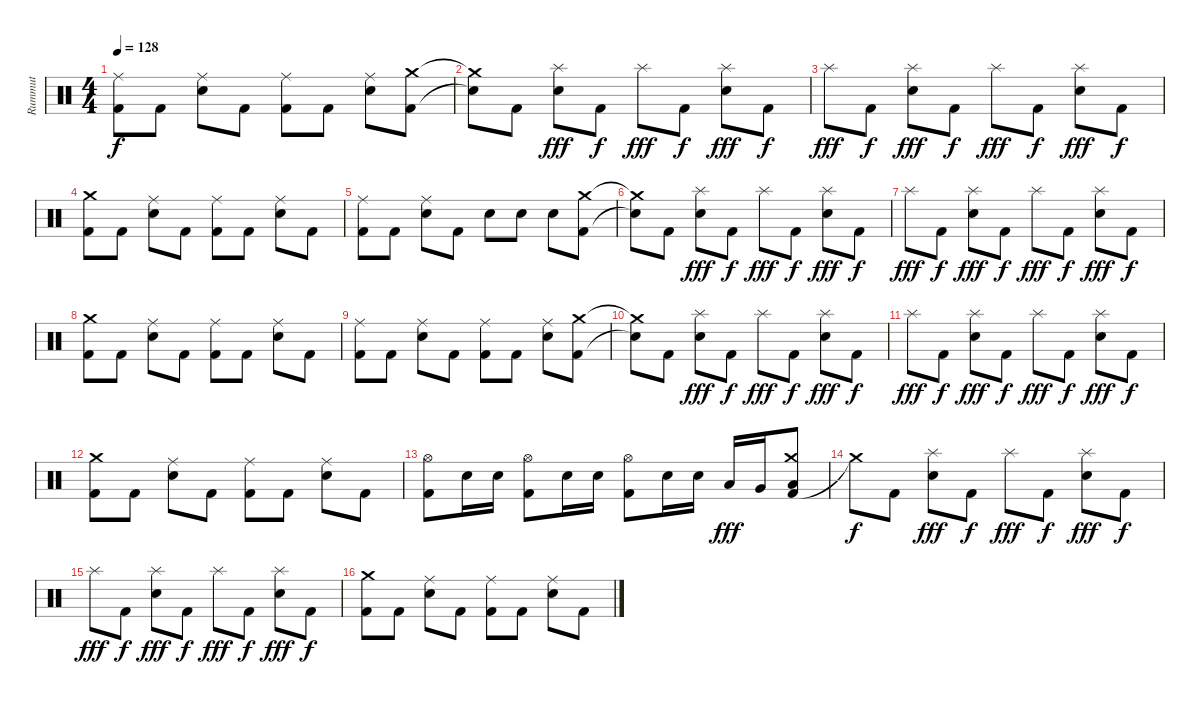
\track ("Rummut" "Rummut") {instrument percussion}
\staff {score}
\articulation defaults
\ts (4 4)
\tempo 128
\clef neutral
\ks c
("Kick (hit) 2" "Ride (middle)").8{dy f} "Kick (hit) 2".8 ("Ride (middle)" "Snare (hit) 2").8 "Kick (hit) 2".8 ("Kick (hit) 2" "Ride (middle)").8 "Kick (hit) 2".8 ("Ride (middle)" "Snare (hit) 2").8 ("Kick (hit) 2" "Crash medium (hit)").8 |
("Snare (hit)"{t} "Crash medium (hit)"{t}).8 "Kick (hit) 2".8 ("Splash (hit)" "Snare (hit) 2").8{dy fff} "Kick (hit) 2".8{dy f} "Splash (hit)".8{dy fff} "Kick (hit) 2".8{dy f} ("Splash (hit)" "Snare (hit) 2").8{dy fff} "Kick (hit) 2".8{dy f} |
"Splash (hit)".8{dy fff} "Kick (hit) 2".8{dy f} ("Splash (hit)" "Snare (hit) 2").8{dy fff} "Kick (hit) 2".8{dy f} "Splash (hit)".8{dy fff} "Kick (hit) 2".8{dy f} ("Splash (hit)" "Snare (hit) 2").8{dy fff} "Kick (hit) 2".8{dy f} |
("Kick (hit) 2" "Crash medium (hit)").8 "Kick (hit) 2".8 ("Ride (middle)" "Snare (hit) 2").8 "Kick (hit) 2".8 ("Kick (hit) 2" "Ride (middle)").8 "Kick (hit) 2".8 ("Ride (middle)" "Snare (hit) 2").8 "Kick (hit) 2".8 |
("Kick (hit) 2" "Ride (middle)").8 "Kick (hit) 2".8 ("Ride (middle)" "Snare (hit) 2").8 "Kick (hit) 2".8 "Snare (hit) 2".8 "Snare (hit) 2".8 "Snare (hit) 2".8 ("Kick (hit) 2" "Crash medium (hit)").8 |
("Snare (hit)"{t} "Crash medium (hit)"{t}).8 "Kick (hit) 2".8 ("Splash (hit)" "Snare (hit) 2").8{dy fff} "Kick (hit) 2".8{dy f} "Splash (hit)".8{dy fff} "Kick (hit) 2".8{dy f} ("Splash (hit)" "Snare (hit) 2").8{dy fff} "Kick (hit) 2".8{dy f} |
"Splash (hit)".8{dy fff} "Kick (hit) 2".8{dy f} ("Splash (hit)" "Snare (hit) 2").8{dy fff} "Kick (hit) 2".8{dy f} "Splash (hit)".8{dy fff} "Kick (hit) 2".8{dy f} ("Splash (hit)" "Snare (hit) 2").8{dy fff} "Kick (hit) 2".8{dy f} |
("Kick (hit) 2" "Crash medium (hit)").8 "Kick (hit) 2".8 ("Ride (middle)" "Snare (hit) 2").8 "Kick (hit) 2".8 ("Kick (hit) 2" "Ride (middle)").8 "Kick (hit) 2".8 ("Ride (middle)" "Snare (hit) 2").8 "Kick (hit) 2".8 |
("Kick (hit) 2" "Ride (middle)").8 "Kick (hit) 2".8 ("Ride (middle)" "Snare (hit) 2").8 "Kick (hit) 2".8 ("Kick (hit) 2" "Ride (middle)").8 "Kick (hit) 2".8 ("Ride (middle)" "Snare (hit) 2").8 ("Kick (hit) 2" "Crash medium (hit)").8 |
("Snare (hit)"{t} "Crash medium (hit)"{t}).8 "Kick (hit) 2".8 ("Splash (hit)" "Snare (hit) 2").8{dy fff} "Kick (hit) 2".8{dy f} "Splash (hit)".8{dy fff} "Kick (hit) 2".8{dy f} ("Splash (hit)" "Snare (hit) 2").8{dy fff} "Kick (hit) 2".8{dy f} |
"Splash (hit)".8{dy fff} "Kick (hit) 2".8{dy f} ("Splash (hit)" "Snare (hit) 2").8{dy fff} "Kick (hit) 2".8{dy f} "Splash (hit)".8{dy fff} "Kick (hit) 2".8{dy f} ("Splash (hit)" "Snare (hit) 2").8{dy fff} "Kick (hit) 2".8{dy f} |
("Kick (hit) 2" "Crash medium (hit)").8 "Kick (hit) 2".8 ("Ride (middle)" "Snare (hit) 2").8 "Kick (hit) 2".8 ("Kick (hit) 2" "Ride (middle)").8 "Kick (hit) 2".8 ("Ride (middle)" "Snare (hit) 2").8 "Kick (hit) 2".8 |
("Kick (hit) 2" "Hi-Hat (open)").8 "Snare (hit) 2".16 "Snare (hit) 2".16 ("Kick (hit) 2" "Hi-Hat (open)").8 "Snare (hit) 2".16 "Snare (hit) 2".16 ("Kick (hit) 2" "Hi-Hat (open)").8 "Snare (hit) 2".16 "Snare (hit) 2".16 "Low Tom (hit)".16{dy fff} "Very Low Tom (hit)".16 ("Kick (hit) 2" "Crash medium (hit)" "Low Floor Tom (hit)").8 |
"Crash medium (hit)"{t}.8{dy f} "Kick (hit) 2".8 ("Splash (hit)" "Snare (hit) 2").8{dy fff} "Kick (hit) 2".8{dy f} "Splash (hit)".8{dy fff} "Kick (hit) 2".8{dy f} ("Splash (hit)" "Snare (hit) 2").8{dy fff} "Kick (hit) 2".8{dy f} |
"Splash (hit)".8{dy fff} "Kick (hit) 2".8{dy f} ("Splash (hit)" "Snare (hit) 2").8{dy fff} "Kick (hit) 2".8{dy f} "Splash (hit)".8{dy fff} "Kick (hit) 2".8{dy f} ("Splash (hit)" "Snare (hit) 2").8{dy fff} "Kick (hit) 2".8{dy f} |
("Kick (hit) 2" "Crash medium (hit)").8 "Kick (hit) 2".8 ("Ride (middle)" "Snare (hit) 2").8 "Kick (hit) 2".8 ("Kick (hit) 2" "Ride (middle)").8 "Kick (hit) 2".8 ("Ride (middle)" "Snare (hit) 2").8 "Kick (hit) 2".8
